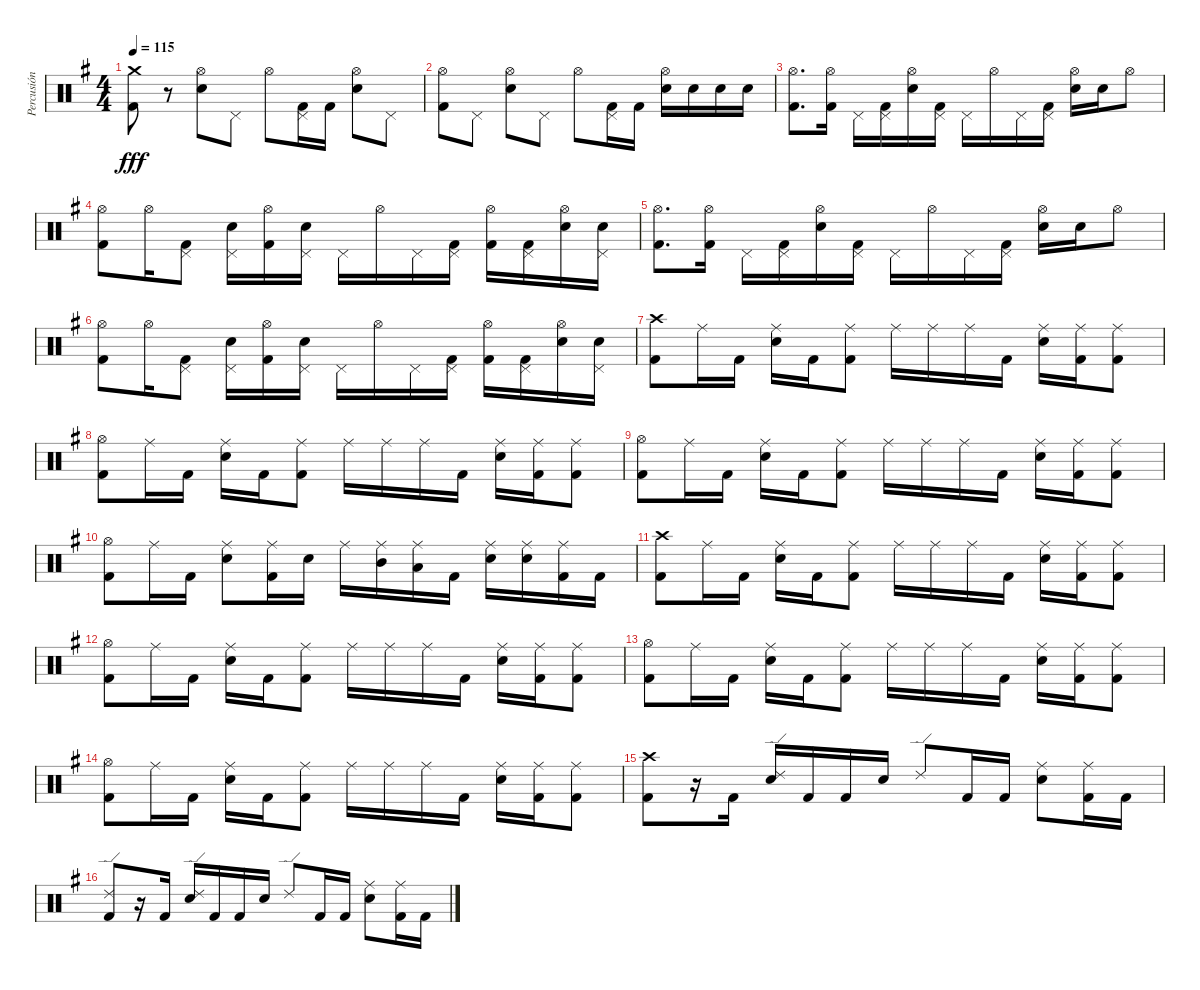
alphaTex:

\track ("Percusión" "Percusión") {instrument percussion}
\staff {score}
\articulation defaults
\ts (4 4)
\tempo 115
\clef neutral
\ks g
("Crash medium (hit)" "Kick (hit) 2").8{dy fff} r.8 ("Hi-Hat (open)" "Electric Snare (hit)").8 "Pedal Hi-Hat (hit)".8 "Hi-Hat (open)".8 ("Pedal Hi-Hat (hit)" "Kick (hit) 2").16 "Kick (hit) 2".16 ("Hi-Hat (open)" "Electric Snare (hit)").8 "Pedal Hi-Hat (hit)".8 |
("Hi-Hat (open)" "Kick (hit) 2").8 "Pedal Hi-Hat (hit)".8 ("Hi-Hat (open)" "Electric Snare (hit)").8 "Pedal Hi-Hat (hit)".8 "Hi-Hat (open)".8 ("Pedal Hi-Hat (hit)" "Kick (hit) 2").16 "Kick (hit) 2".16 ("Hi-Hat (open)" "Electric Snare (hit)").16 "Electric Snare (hit)".16 "Electric Snare (hit)".16 "Electric Snare (hit)".16 |
("Hi-Hat (open)" "Kick (hit) 2").8{d} ("Hi-Hat (open)" "Kick (hit) 2").16 "Pedal Hi-Hat (hit)".16 ("Pedal Hi-Hat (hit)" "Kick (hit) 2").16 ("Hi-Hat (open)" "Electric Snare (hit)").16 ("Pedal Hi-Hat (hit)" "Kick (hit) 2").16 "Pedal Hi-Hat (hit)".16 "Hi-Hat (open)".16 "Pedal Hi-Hat (hit)".16 ("Pedal Hi-Hat (hit)" "Kick (hit) 2").16 ("Hi-Hat (open)" "Electric Snare (hit)").16 "Electric Snare (hit)".16 "Hi-Hat (open)".8 |
("Hi-Hat (open)" "Kick (hit) 2").8 "Hi-Hat (open)".16 ("Pedal Hi-Hat (hit)" "Kick (hit) 2").8 ("Pedal Hi-Hat (hit)" "Electric Snare (hit)").16 ("Hi-Hat (open)" "Kick (hit) 2").16 ("Pedal Hi-Hat (hit)" "Electric Snare (hit)").16 "Pedal Hi-Hat (hit)".16 "Hi-Hat (open)".16 "Pedal Hi-Hat (hit)".16 ("Pedal Hi-Hat (hit)" "Kick (hit) 2").16 ("Hi-Hat (open)" "Kick (hit) 2").16 ("Pedal Hi-Hat (hit)" "Kick (hit) 2").16 ("Hi-Hat (open)" "Electric Snare (hit)").16 ("Pedal Hi-Hat (hit)" "Electric Snare (hit)").16 |
("Hi-Hat (open)" "Kick (hit) 2").8{d} ("Hi-Hat (open)" "Kick (hit) 2").16 "Pedal Hi-Hat (hit)".16 ("Pedal Hi-Hat (hit)" "Kick (hit) 2").16 ("Hi-Hat (open)" "Electric Snare (hit)").16 ("Pedal Hi-Hat (hit)" "Kick (hit) 2").16 "Pedal Hi-Hat (hit)".16 "Hi-Hat (open)".16 "Pedal Hi-Hat (hit)".16 ("Pedal Hi-Hat (hit)" "Kick (hit) 2").16 ("Hi-Hat (open)" "Electric Snare (hit)").16 "Electric Snare (hit)".16 "Hi-Hat (open)".8 |
("Hi-Hat (open)" "Kick (hit) 2").8 "Hi-Hat (open)".16 ("Pedal Hi-Hat (hit)" "Kick (hit) 2").8 ("Pedal Hi-Hat (hit)" "Electric Snare (hit)").16 ("Hi-Hat (open)" "Kick (hit) 2").16 ("Pedal Hi-Hat (hit)" "Electric Snare (hit)").16 "Pedal Hi-Hat (hit)".16 "Hi-Hat (open)".16 "Pedal Hi-Hat (hit)".16 ("Pedal Hi-Hat (hit)" "Kick (hit) 2").16 ("Hi-Hat (open)" "Kick (hit) 2").16 ("Pedal Hi-Hat (hit)" "Kick (hit) 2").16 ("Hi-Hat (open)" "Electric Snare (hit)").16 ("Pedal Hi-Hat (hit)" "Electric Snare (hit)").16 |
("Crash high (hit)" "Kick (hit) 2").8 "Ride (middle)".16 "Kick (hit) 2".16 ("Ride (middle)" "Electric Snare (hit)").16 "Kick (hit) 2".16 ("Ride (middle)" "Kick (hit) 2").8 "Ride (middle)".16 "Ride (middle)".16 "Ride (middle)".16 "Kick (hit) 2".16 ("Ride (middle)" "Electric Snare (hit)").16 ("Ride (middle)" "Kick (hit) 2").16 ("Ride (middle)" "Kick (hit) 2").8 |
("Hi-Hat (open)" "Kick (hit) 2").8 "Ride (middle)".16 "Kick (hit) 2".16 ("Ride (middle)" "Electric Snare (hit)").16 "Kick (hit) 2".16 ("Ride (middle)" "Kick (hit) 2").8 "Ride (middle)".16 "Ride (middle)".16 "Ride (middle)".16 "Kick (hit) 2".16 ("Ride (middle)" "Electric Snare (hit)").16 ("Ride (middle)" "Kick (hit) 2").16 ("Ride (middle)" "Kick (hit) 2").8 |
("Hi-Hat (open)" "Kick (hit) 2").8 "Ride (middle)".16 "Kick (hit) 2".16 ("Ride (middle)" "Electric Snare (hit)").16 "Kick (hit) 2".16 ("Ride (middle)" "Kick (hit) 2").8 "Ride (middle)".16 "Ride (middle)".16 "Ride (middle)".16 "Kick (hit) 2".16 ("Ride (middle)" "Electric Snare (hit)").16 ("Ride (middle)" "Kick (hit) 2").16 ("Ride (middle)" "Kick (hit) 2").8 |
("Hi-Hat (open)" "Kick (hit) 2").8 "Ride (middle)".16 "Kick (hit) 2".16 ("Ride (middle)" "Electric Snare (hit)").8 ("Ride (middle)" "Kick (hit) 2").16 "Electric Snare (hit)".16 "Ride (middle)".16 ("Ride (middle)" "Mid Tom (hit)").16 ("Ride (middle)" "Low Tom (hit)").16 "Kick (hit) 2".16 ("Ride (middle)" "Electric Snare (hit)").16 ("Ride (middle)" "Electric Snare (hit)").16 ("Ride (middle)" "Kick (hit) 2").16 "Kick (hit) 2".16 |
("Crash high (hit)" "Kick (hit) 2").8 "Ride (middle)".16 "Kick (hit) 2".16 ("Ride (middle)" "Electric Snare (hit)").16 "Kick (hit) 2".16 ("Ride (middle)" "Kick (hit) 2").8 "Ride (middle)".16 "Ride (middle)".16 "Ride (middle)".16 "Kick (hit) 2".16 ("Ride (middle)" "Electric Snare (hit)").16 ("Ride (middle)" "Kick (hit) 2").16 ("Ride (middle)" "Kick (hit) 2").8 |
("Hi-Hat (open)" "Kick (hit) 2").8 "Ride (middle)".16 "Kick (hit) 2".16 ("Ride (middle)" "Electric Snare (hit)").16 "Kick (hit) 2".16 ("Ride (middle)" "Kick (hit) 2").8 "Ride (middle)".16 "Ride (middle)".16 "Ride (middle)".16 "Kick (hit) 2".16 ("Ride (middle)" "Electric Snare (hit)").16 ("Ride (middle)" "Kick (hit) 2").16 ("Ride (middle)" "Kick (hit) 2").8 |
("Hi-Hat (open)" "Kick (hit) 2").8 "Ride (middle)".16 "Kick (hit) 2".16 ("Ride (middle)" "Electric Snare (hit)").16 "Kick (hit) 2".16 ("Ride (middle)" "Kick (hit) 2").8 "Ride (middle)".16 "Ride (middle)".16 "Ride (middle)".16 "Kick (hit) 2".16 ("Ride (middle)" "Electric Snare (hit)").16 ("Ride (middle)" "Kick (hit) 2").16 ("Ride (middle)" "Kick (hit) 2").8 |
("Hi-Hat (open)" "Kick (hit) 2").8 "Ride (middle)".16 "Kick (hit) 2".16 ("Ride (middle)" "Electric Snare (hit)").16 "Kick (hit) 2".16 ("Ride (middle)" "Kick (hit) 2").8 "Ride (middle)".16 "Ride (middle)".16 "Ride (middle)".16 "Kick (hit) 2".16 ("Ride (middle)" "Electric Snare (hit)").16 ("Ride (middle)" "Kick (hit) 2").16 ("Ride (middle)" "Kick (hit) 2").8 |
("Crash high (hit)" "Kick (hit) 2").8 r.16 "Kick (hit) 2".16 ("Ride (edge) 2" "Electric Snare (hit)").16 "Kick (hit) 2".16 "Kick (hit) 2".16 "Electric Snare (hit)".16 "Ride (edge) 2".8 "Kick (hit) 2".16 "Kick (hit) 2".16 ("Ride (middle)" "Electric Snare (hit)").8 ("Ride (middle)" "Kick (hit) 2").16 "Kick (hit) 2".16 |
("Ride (edge) 2" "Kick (hit) 2").8 r.16 "Kick (hit) 2".16 ("Ride (edge) 2" "Electric Snare (hit)").16 "Kick (hit) 2".16 "Kick (hit) 2".16 "Electric Snare (hit)".16 "Ride (edge) 2".8 "Kick (hit) 2".16 "Kick (hit) 2".16 ("Ride (middle)" "Electric Snare (hit)").8 ("Ride (middle)" "Kick (hit) 2").16 "Kick (hit) 2".16
